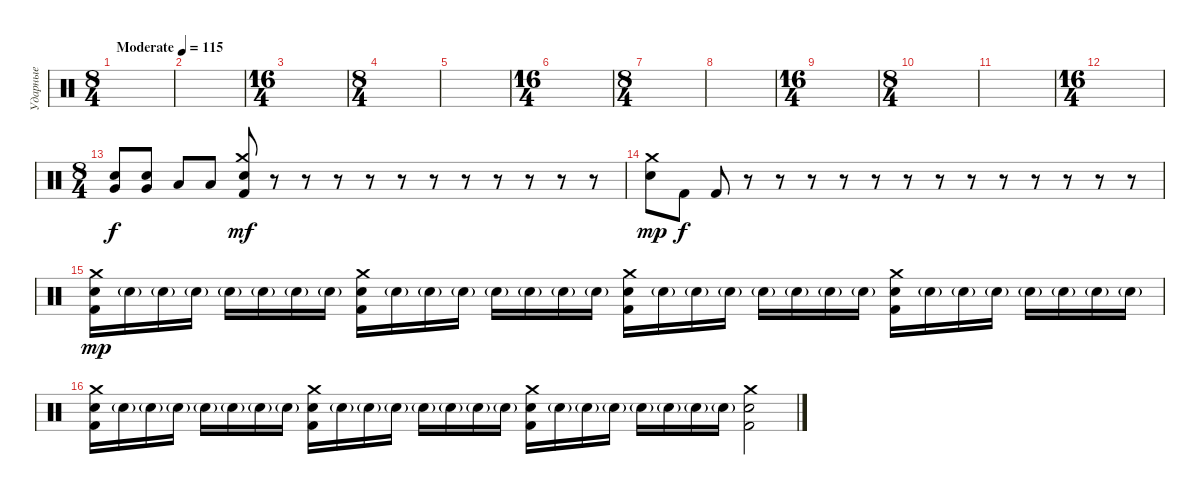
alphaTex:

\track ("Ударные" "Ударные") {instrument percussion}
\staff {score}
\articulation defaults
\ts (8 4)
\tempo (115 "Moderate")
\clef neutral
\ks c
|
|
\ts (16 4)
|
\ts (8 4)
|
|
\ts (16 4)
|
\ts (8 4)
|
|
\ts (16 4)
|
\ts (8 4)
|
|
\ts (16 4)
|
\ts (8 4)
("Very Low Tom (hit)" "Snare (hit) 2").8 ("Very Low Tom (hit)" "Snare (hit) 2").8 "Low Floor Tom (hit)".8 "Low Floor Tom (hit)".8 ("Crash medium (hit)" "Snare (hit) 2" "Kick (hit) 2").8{dy mf} r.8 r.8 r.8 r.8 r.8 r.8 r.8 r.8 r.8 r.8 r.8 |
("Crash medium (hit)" "Snare (hit) 2").8{dy mp} "Kick (hit) 2".8{dy f} "Kick (hit) 2".8 r.8 r.8 r.8 r.8 r.8 r.8 r.8 r.8 r.8 r.8 r.8 r.8 r.8 |
("Crash medium (hit)" "Electric Snare (hit)" "Kick (hit) 2").16{dy mp} "Electric Snare (hit)"{g}.16 "Electric Snare (hit)"{g}.16 "Electric Snare (hit)"{g}.16 "Electric Snare (hit)"{g}.16 "Electric Snare (hit)"{g}.16 "Electric Snare (hit)"{g}.16 "Electric Snare (hit)"{g}.16 ("Crash medium (hit)" "Electric Snare (hit)" "Kick (hit) 2").16 "Electric Snare (hit)"{g}.16 "Electric Snare (hit)"{g}.16 "Electric Snare (hit)"{g}.16 "Electric Snare (hit)"{g}.16 "Electric Snare (hit)"{g}.16 "Electric Snare (hit)"{g}.16 "Electric Snare (hit)"{g}.16 ("Crash medium (hit)" "Electric Snare (hit)" "Kick (hit) 2").16 "Electric Snare (hit)"{g}.16 "Electric Snare (hit)"{g}.16 "Electric Snare (hit)"{g}.16 "Electric Snare (hit)"{g}.16 "Electric Snare (hit)"{g}.16 "Electric Snare (hit)"{g}.16 "Electric Snare (hit)"{g}.16 ("Crash medium (hit)" "Electric Snare (hit)" "Kick (hit) 2").16 "Electric Snare (hit)"{g}.16 "Electric Snare (hit)"{g}.16 "Electric Snare (hit)"{g}.16 "Electric Snare (hit)"{g}.16 "Electric Snare (hit)"{g}.16 "Electric Snare (hit)"{g}.16 "Electric Snare (hit)"{g}.16 |
("Crash medium (hit)" "Electric Snare (hit)" "Kick (hit) 2").16 "Electric Snare (hit)"{g}.16 "Electric Snare (hit)"{g}.16 "Electric Snare (hit)"{g}.16 "Electric Snare (hit)"{g}.16 "Electric Snare (hit)"{g}.16 "Electric Snare (hit)"{g}.16 "Electric Snare (hit)"{g}.16 ("Crash medium (hit)" "Electric Snare (hit)" "Kick (hit) 2").16 "Electric Snare (hit)"{g}.16 "Electric Snare (hit)"{g}.16 "Electric Snare (hit)"{g}.16 "Electric Snare (hit)"{g}.16 "Electric Snare (hit)"{g}.16 "Electric Snare (hit)"{g}.16 "Electric Snare (hit)"{g}.16 ("Crash medium (hit)" "Electric Snare (hit)" "Kick (hit) 2").16 "Electric Snare (hit)"{g}.16 "Electric Snare (hit)"{g}.16 "Electric Snare (hit)"{g}.16 "Electric Snare (hit)"{g}.16 "Electric Snare (hit)"{g}.16 "Electric Snare (hit)"{g}.16 "Electric Snare (hit)"{g}.16 ("Crash medium (hit)" "Electric Snare (hit)" "Kick (hit) 2").2
